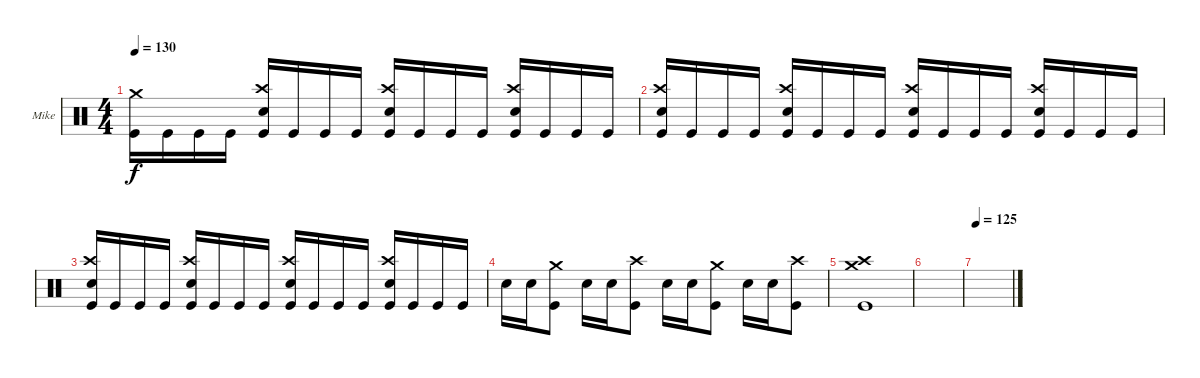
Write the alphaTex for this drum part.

\defaultSystemsLayout 4
\bracketExtendMode groupsimilarinstruments
\firstSystemTrackNameOrientation horizontal
\otherSystemsTrackNameOrientation horizontal
\track ("Mike Portnoy" "Mike") {instrument percussion}
\staff {score}
\articulation defaults
\ts (4 4)
\tempo 130
\clef neutral
\ks c
("Crash medium (hit)" "Kick (hit)").16{dy f} "Kick (hit)".16 "Kick (hit)".16 "Kick (hit)".16 ("Crash high (hit)" "Snare (hit) 2" "Kick (hit)").16 "Kick (hit)".16 "Kick (hit)".16 "Kick (hit)".16 ("Crash high (hit)" "Snare (hit) 2" "Kick (hit)").16 "Kick (hit)".16 "Kick (hit)".16 "Kick (hit)".16 ("Crash high (hit)" "Snare (hit) 2" "Kick (hit)").16 "Kick (hit)".16 "Kick (hit)".16 "Kick (hit)".16 |
("Crash high (hit)" "Snare (hit) 2" "Kick (hit)").16 "Kick (hit)".16 "Kick (hit)".16 "Kick (hit)".16 ("Crash high (hit)" "Snare (hit) 2" "Kick (hit)").16 "Kick (hit)".16 "Kick (hit)".16 "Kick (hit)".16 ("Crash high (hit)" "Snare (hit) 2" "Kick (hit)").16 "Kick (hit)".16 "Kick (hit)".16 "Kick (hit)".16 ("Crash high (hit)" "Snare (hit) 2" "Kick (hit)").16 "Kick (hit)".16 "Kick (hit)".16 "Kick (hit)".16 |
("Crash high (hit)" "Snare (hit) 2" "Kick (hit)").16 "Kick (hit)".16 "Kick (hit)".16 "Kick (hit)".16 ("Crash high (hit)" "Snare (hit) 2" "Kick (hit)").16 "Kick (hit)".16 "Kick (hit)".16 "Kick (hit)".16 ("Crash high (hit)" "Snare (hit) 2" "Kick (hit)").16 "Kick (hit)".16 "Kick (hit)".16 "Kick (hit)".16 ("Crash high (hit)" "Snare (hit) 2" "Kick (hit)").16 "Kick (hit)".16 "Kick (hit)".16 "Kick (hit)".16 |
"Snare (hit) 2".16 "Snare (hit) 2".16 ("Crash medium (hit)" "Kick (hit)").8 "Snare (hit) 2".16 "Snare (hit) 2".16 ("Crash high (hit)" "Kick (hit)").8 "Snare (hit) 2".16 "Snare (hit) 2".16 ("Crash medium (hit)" "Kick (hit)").8 "Snare (hit) 2".16 "Snare (hit) 2".16 ("Crash high (hit)" "Kick (hit)").8 |
("Crash medium (hit)" "Crash high (hit)" "Kick (hit)").1 |
|
\tempo 125
